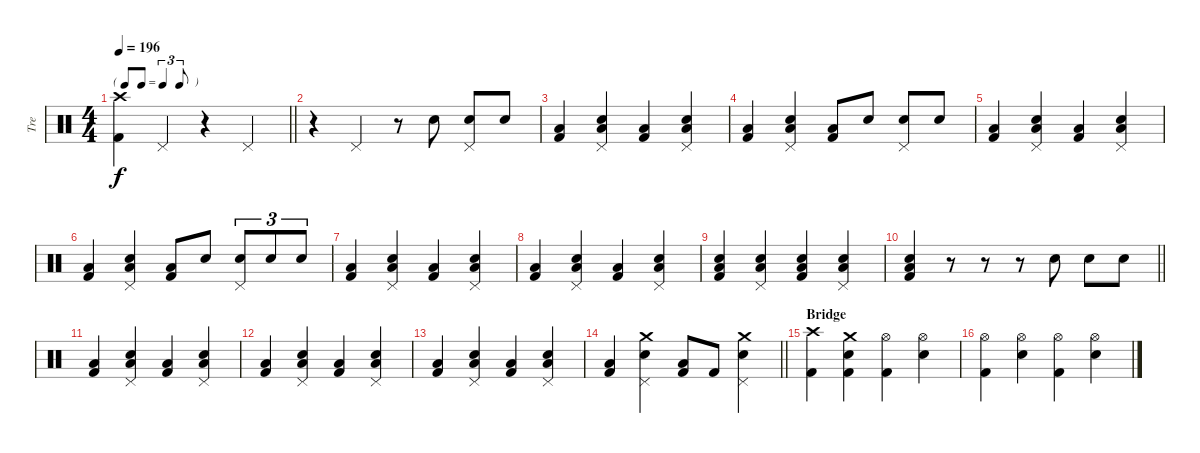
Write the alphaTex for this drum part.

\track ("Tre" "Tre") {instrument percussion}
\staff {score}
\articulation defaults
\ts (4 4)
\tf triplet8th
\tempo 196
\clef neutral
\barLineRight lightlight
\ks c
("Crash high (hit)" "Kick (hit) 2").4{dy f} "Pedal Hi-Hat (hit)".4 r.4 "Pedal Hi-Hat (hit)".4 |
r.4 "Pedal Hi-Hat (hit)".4 r.8 "Snare (hit) 2".8 ("Snare (hit) 2" "Pedal Hi-Hat (hit)").8 "Snare (hit) 2".8 |
("Low Floor Tom (hit)" "Kick (hit) 2").4 ("Snare (hit) 2" "Low Floor Tom (hit)" "Pedal Hi-Hat (hit)").4 ("Low Floor Tom (hit)" "Kick (hit) 2").4 ("Snare (hit) 2" "Low Floor Tom (hit)" "Pedal Hi-Hat (hit)").4 |
("Low Floor Tom (hit)" "Kick (hit) 2").4 ("Snare (hit) 2" "Low Floor Tom (hit)" "Pedal Hi-Hat (hit)").4 ("Low Floor Tom (hit)" "Kick (hit) 2").8 "Snare (hit) 2".8 ("Snare (hit) 2" "Pedal Hi-Hat (hit)").8 "Snare (hit) 2".8 |
("Low Floor Tom (hit)" "Kick (hit) 2").4 ("Snare (hit) 2" "Low Floor Tom (hit)" "Pedal Hi-Hat (hit)").4 ("Low Floor Tom (hit)" "Kick (hit) 2").4 ("Snare (hit) 2" "Low Floor Tom (hit)" "Pedal Hi-Hat (hit)").4 |
("Low Floor Tom (hit)" "Kick (hit) 2").4 ("Snare (hit) 2" "Low Floor Tom (hit)" "Pedal Hi-Hat (hit)").4 ("Low Floor Tom (hit)" "Kick (hit) 2").8 "Snare (hit) 2".8 ("Snare (hit) 2" "Pedal Hi-Hat (hit)").8{tu (3 2)} "Snare (hit) 2".8{tu (3 2)} "Snare (hit) 2".8{tu (3 2)} |
("Low Floor Tom (hit)" "Kick (hit) 2").4 ("Snare (hit) 2" "Low Floor Tom (hit)" "Pedal Hi-Hat (hit)").4 ("Low Floor Tom (hit)" "Kick (hit) 2").4 ("Snare (hit) 2" "Low Floor Tom (hit)" "Pedal Hi-Hat (hit)").4 |
("Low Floor Tom (hit)" "Kick (hit) 2").4 ("Snare (hit) 2" "Low Floor Tom (hit)" "Pedal Hi-Hat (hit)").4 ("Low Floor Tom (hit)" "Kick (hit) 2").4 ("Snare (hit) 2" "Low Floor Tom (hit)" "Pedal Hi-Hat (hit)").4 |
("Snare (hit) 2" "Low Floor Tom (hit)" "Kick (hit) 2").4 ("Snare (hit) 2" "Low Floor Tom (hit)" "Pedal Hi-Hat (hit)").4 ("Snare (hit) 2" "Low Floor Tom (hit)" "Kick (hit) 2").4 ("Snare (hit) 2" "Low Floor Tom (hit)" "Pedal Hi-Hat (hit)").4 |
\barLineRight lightlight
("Snare (hit) 2" "Low Floor Tom (hit)" "Kick (hit) 2").4 r.8 r.8 r.8 "Snare (hit) 2".8 "Snare (hit) 2".8 "Snare (hit) 2".8 |
("Low Floor Tom (hit)" "Kick (hit) 2").4 ("Snare (hit) 2" "Low Floor Tom (hit)" "Pedal Hi-Hat (hit)").4 ("Low Floor Tom (hit)" "Kick (hit) 2").4 ("Snare (hit) 2" "Low Floor Tom (hit)" "Pedal Hi-Hat (hit)").4 |
("Low Floor Tom (hit)" "Kick (hit) 2").4 ("Snare (hit) 2" "Low Floor Tom (hit)" "Pedal Hi-Hat (hit)").4 ("Low Floor Tom (hit)" "Kick (hit) 2").4 ("Snare (hit) 2" "Low Floor Tom (hit)" "Pedal Hi-Hat (hit)").4 |
("Low Floor Tom (hit)" "Kick (hit) 2").4 ("Snare (hit) 2" "Low Floor Tom (hit)" "Pedal Hi-Hat (hit)").4 ("Low Floor Tom (hit)" "Kick (hit) 2").4 ("Snare (hit) 2" "Low Floor Tom (hit)" "Pedal Hi-Hat (hit)").4 |
\barLineRight lightlight
("Low Floor Tom (hit)" "Kick (hit) 2").4 ("Crash medium (hit)" "Snare (hit) 2" "Pedal Hi-Hat (hit)").4 ("Low Floor Tom (hit)" "Kick (hit) 2").8 "Kick (hit) 2".8 ("Crash medium (hit)" "Snare (hit) 2" "Pedal Hi-Hat (hit)").4 |
\section ("" "Bridge")
("Crash high (hit)" "Kick (hit) 2").4 ("Crash medium (hit)" "Snare (hit) 2" "Kick (hit) 2").4 ("Hi-Hat (open)" "Kick (hit) 2").4 ("Hi-Hat (open)" "Snare (hit) 2").4 |
("Hi-Hat (open)" "Kick (hit) 2").4 ("Hi-Hat (open)" "Snare (hit) 2").4 ("Hi-Hat (open)" "Kick (hit) 2").4 ("Hi-Hat (open)" "Snare (hit) 2").4
